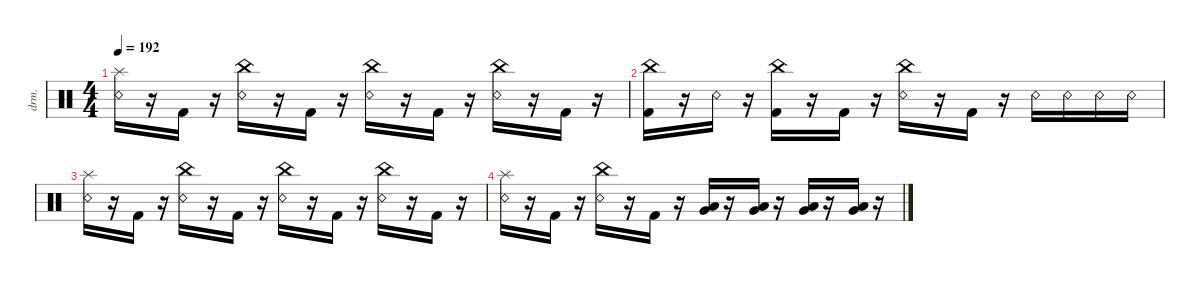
\defaultSystemsLayout 4
\hideDynamics
\bracketExtendMode nobrackets
\otherSystemsTrackNameOrientation horizontal
\track ("Drumkit" "drm.") {instrument percussion}
\staff {score}
\articulation defaults
\ts (4 4)
\tempo 192
\clef neutral
\ks c
("Snare (rim shot)" "Splash (hit)").16{dy ff beam Down} r.16{beam Down} "Kick (hit) 2".16{beam Down} r.16{beam Down} ("Snare (rim shot)" "China (hit)").16{beam Down} r.16{beam Down} "Kick (hit) 2".16{beam Down} r.16{beam Down} ("Snare (rim shot)" "China (hit)").16{beam Down} r.16{beam Down} "Kick (hit) 2".16{beam Down} r.16{beam Down} ("Snare (rim shot)" "China (hit)").16{beam Down} r.16{beam Down} "Kick (hit) 2".16{beam Down} r.16{beam Down} |
("Kick (hit) 2" "China (hit)").16{beam Down} r.16{beam Down} "Snare (rim shot)".16{beam Down} r.16{beam Down} ("Kick (hit) 2" "China (hit)").16{beam Down} r.16{beam Down} "Kick (hit) 2".16{beam Down} r.16{beam Down} ("Snare (rim shot)" "China (hit)").16{beam Down} r.16{beam Down} "Kick (hit) 2".16{beam Down} r.16{beam Down} "Snare (rim shot)".16{beam Down} "Snare (rim shot)".16{beam Down} "Snare (rim shot)".16{beam Down} "Snare (rim shot)".16{beam Down} |
("Snare (rim shot)" "Splash (hit)").16{beam Down} r.16{beam Down} "Kick (hit) 2".16{beam Down} r.16{beam Down} ("Snare (rim shot)" "China (hit)").16{beam Down} r.16{beam Down} "Kick (hit) 2".16{beam Down} r.16{beam Down} ("Snare (rim shot)" "China (hit)").16{beam Down} r.16{beam Down} "Kick (hit) 2".16{beam Down} r.16{beam Down} ("Snare (rim shot)" "China (hit)").16{beam Down} r.16{beam Down} "Kick (hit) 2".16{beam Down} r.16{beam Down} |
("Snare (rim shot)" "Splash (hit)").16{beam Down} r.16{beam Down} "Kick (hit) 2".16{beam Down} r.16{beam Down} ("Snare (rim shot)" "China (hit)").16{beam Down} r.16{beam Down} "Kick (hit) 2".16{beam Down} r.16{beam Down} ("Very Low Tom (hit)" "Low Tom (hit)").16{beam Up} r.16{beam Up} ("Low Tom (hit)" "Very Low Tom (hit)").16{beam Up} r.16{beam Up} ("Very Low Tom (hit)" "Low Tom (hit)").16{beam Up} r.16{beam Up} ("Very Low Tom (hit)" "Low Tom (hit)").16{beam Up} r.16{beam Up}
